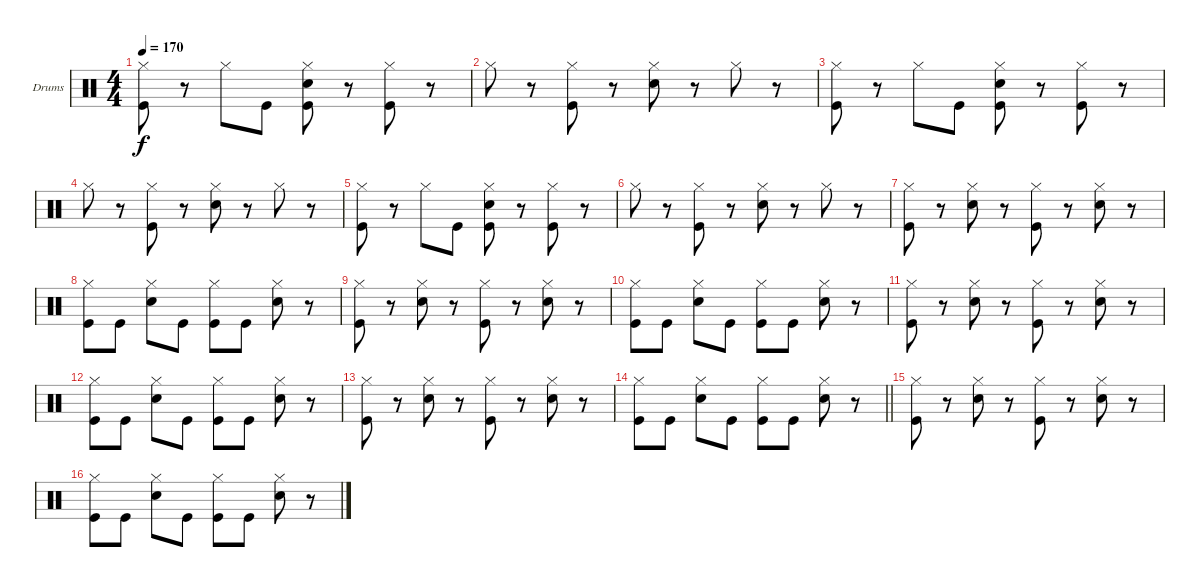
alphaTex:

\bracketExtendMode groupsimilarinstruments
\firstSystemTrackNameOrientation horizontal
\otherSystemsTrackNameOrientation horizontal
\track ("Drumkit" "Drums") {instrument percussion}
\staff {score}
\articulation defaults
\ts (4 4)
\tempo 170
\clef neutral
\ks c
("Hi-Hat (closed)" "Kick (hit)").8{dy f} r.8 "Hi-Hat (closed)".8 "Kick (hit)".8 ("Hi-Hat (closed)" "Snare (hit) 2" "Kick (hit)").8 r.8 ("Hi-Hat (closed)" "Kick (hit)").8 r.8 |
"Hi-Hat (closed)".8 r.8 ("Hi-Hat (closed)" "Kick (hit)").8 r.8 ("Hi-Hat (closed)" "Snare (hit) 2").8 r.8 "Hi-Hat (closed)".8 r.8 |
("Hi-Hat (closed)" "Kick (hit)").8 r.8 "Hi-Hat (closed)".8 "Kick (hit)".8 ("Hi-Hat (closed)" "Snare (hit) 2" "Kick (hit)").8 r.8 ("Hi-Hat (closed)" "Kick (hit)").8 r.8 |
"Hi-Hat (closed)".8 r.8 ("Hi-Hat (closed)" "Kick (hit)").8 r.8 ("Hi-Hat (closed)" "Snare (hit) 2").8 r.8 "Hi-Hat (closed)".8 r.8 |
("Hi-Hat (closed)" "Kick (hit)").8 r.8 "Hi-Hat (closed)".8 "Kick (hit)".8 ("Hi-Hat (closed)" "Snare (hit) 2" "Kick (hit)").8 r.8 ("Hi-Hat (closed)" "Kick (hit)").8 r.8 |
"Hi-Hat (closed)".8 r.8 ("Hi-Hat (closed)" "Kick (hit)").8 r.8 ("Hi-Hat (closed)" "Snare (hit) 2").8 r.8 "Hi-Hat (closed)".8 r.8 |
("Hi-Hat (closed)" "Kick (hit)").8 r.8 ("Hi-Hat (closed)" "Snare (hit) 2").8 r.8 ("Hi-Hat (closed)" "Kick (hit)").8 r.8 ("Hi-Hat (closed)" "Snare (hit) 2").8 r.8 |
("Hi-Hat (closed)" "Kick (hit)").8 "Kick (hit)".8 ("Hi-Hat (closed)" "Snare (hit) 2").8 "Kick (hit)".8 ("Hi-Hat (closed)" "Kick (hit)").8 "Kick (hit)".8 ("Hi-Hat (closed)" "Snare (hit) 2").8 r.8 |
("Hi-Hat (closed)" "Kick (hit)").8 r.8 ("Hi-Hat (closed)" "Snare (hit) 2").8 r.8 ("Hi-Hat (closed)" "Kick (hit)").8 r.8 ("Hi-Hat (closed)" "Snare (hit) 2").8 r.8 |
("Hi-Hat (closed)" "Kick (hit)").8 "Kick (hit)".8 ("Hi-Hat (closed)" "Snare (hit) 2").8 "Kick (hit)".8 ("Hi-Hat (closed)" "Kick (hit)").8 "Kick (hit)".8 ("Hi-Hat (closed)" "Snare (hit) 2").8 r.8 |
("Hi-Hat (closed)" "Kick (hit)").8 r.8 ("Hi-Hat (closed)" "Snare (hit) 2").8 r.8 ("Hi-Hat (closed)" "Kick (hit)").8 r.8 ("Hi-Hat (closed)" "Snare (hit) 2").8 r.8 |
("Hi-Hat (closed)" "Kick (hit)").8 "Kick (hit)".8 ("Hi-Hat (closed)" "Snare (hit) 2").8 "Kick (hit)".8 ("Hi-Hat (closed)" "Kick (hit)").8 "Kick (hit)".8 ("Hi-Hat (closed)" "Snare (hit) 2").8 r.8 |
("Hi-Hat (closed)" "Kick (hit)").8 r.8 ("Hi-Hat (closed)" "Snare (hit) 2").8 r.8 ("Hi-Hat (closed)" "Kick (hit)").8 r.8 ("Hi-Hat (closed)" "Snare (hit) 2").8 r.8 |
\barLineRight lightlight
("Hi-Hat (closed)" "Kick (hit)").8 "Kick (hit)".8 ("Hi-Hat (closed)" "Snare (hit) 2").8 "Kick (hit)".8 ("Hi-Hat (closed)" "Kick (hit)").8 "Kick (hit)".8 ("Hi-Hat (closed)" "Snare (hit) 2").8 r.8 |
("Hi-Hat (closed)" "Kick (hit)").8 r.8 ("Hi-Hat (closed)" "Snare (hit) 2").8 r.8 ("Hi-Hat (closed)" "Kick (hit)").8 r.8 ("Hi-Hat (closed)" "Snare (hit) 2").8 r.8 |
("Hi-Hat (closed)" "Kick (hit)").8 "Kick (hit)".8 ("Hi-Hat (closed)" "Snare (hit) 2").8 "Kick (hit)".8 ("Hi-Hat (closed)" "Kick (hit)").8 "Kick (hit)".8 ("Hi-Hat (closed)" "Snare (hit) 2").8 r.8
